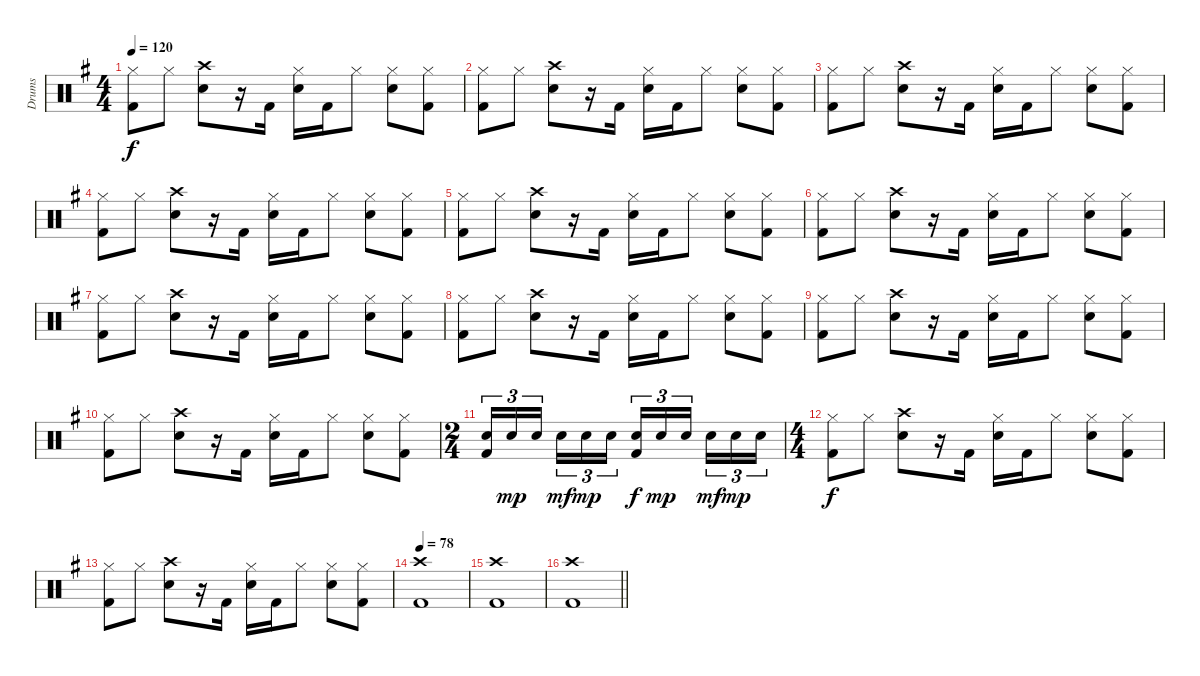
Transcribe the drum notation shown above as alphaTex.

\track ("Drums" "Drums") {instrument percussion}
\staff {score}
\articulation defaults
\ts (4 4)
\tempo 120
\clef neutral
\ks g
("Hi-Hat (closed)" "Kick (hit) 2").8{dy f} "Hi-Hat (closed)".8 ("Crash high (hit)" "Electric Snare (hit)").8 r.16 "Kick (hit) 2".16 ("Hi-Hat (closed)" "Electric Snare (hit)").16 "Kick (hit) 2".16 "Hi-Hat (closed)".8 ("Hi-Hat (closed)" "Electric Snare (hit)").8 ("Hi-Hat (closed)" "Kick (hit) 2").8 |
("Hi-Hat (closed)" "Kick (hit) 2").8 "Hi-Hat (closed)".8 ("Crash high (hit)" "Electric Snare (hit)").8 r.16 "Kick (hit) 2".16 ("Hi-Hat (closed)" "Electric Snare (hit)").16 "Kick (hit) 2".16 "Hi-Hat (closed)".8 ("Hi-Hat (closed)" "Electric Snare (hit)").8 ("Hi-Hat (closed)" "Kick (hit) 2").8 |
("Hi-Hat (closed)" "Kick (hit) 2").8 "Hi-Hat (closed)".8 ("Crash high (hit)" "Electric Snare (hit)").8 r.16 "Kick (hit) 2".16 ("Hi-Hat (closed)" "Electric Snare (hit)").16 "Kick (hit) 2".16 "Hi-Hat (closed)".8 ("Hi-Hat (closed)" "Electric Snare (hit)").8 ("Hi-Hat (closed)" "Kick (hit) 2").8 |
("Hi-Hat (closed)" "Kick (hit) 2").8 "Hi-Hat (closed)".8 ("Crash high (hit)" "Electric Snare (hit)").8 r.16 "Kick (hit) 2".16 ("Hi-Hat (closed)" "Electric Snare (hit)").16 "Kick (hit) 2".16 "Hi-Hat (closed)".8 ("Hi-Hat (closed)" "Electric Snare (hit)").8 ("Hi-Hat (closed)" "Kick (hit) 2").8 |
("Hi-Hat (closed)" "Kick (hit) 2").8 "Hi-Hat (closed)".8 ("Crash high (hit)" "Electric Snare (hit)").8 r.16 "Kick (hit) 2".16 ("Hi-Hat (closed)" "Electric Snare (hit)").16 "Kick (hit) 2".16 "Hi-Hat (closed)".8 ("Hi-Hat (closed)" "Electric Snare (hit)").8 ("Hi-Hat (closed)" "Kick (hit) 2").8 |
("Hi-Hat (closed)" "Kick (hit) 2").8 "Hi-Hat (closed)".8 ("Crash high (hit)" "Electric Snare (hit)").8 r.16 "Kick (hit) 2".16 ("Hi-Hat (closed)" "Electric Snare (hit)").16 "Kick (hit) 2".16 "Hi-Hat (closed)".8 ("Hi-Hat (closed)" "Electric Snare (hit)").8 ("Hi-Hat (closed)" "Kick (hit) 2").8 |
("Hi-Hat (closed)" "Kick (hit) 2").8 "Hi-Hat (closed)".8 ("Crash high (hit)" "Electric Snare (hit)").8 r.16 "Kick (hit) 2".16 ("Hi-Hat (closed)" "Electric Snare (hit)").16 "Kick (hit) 2".16 "Hi-Hat (closed)".8 ("Hi-Hat (closed)" "Electric Snare (hit)").8 ("Hi-Hat (closed)" "Kick (hit) 2").8 |
("Hi-Hat (closed)" "Kick (hit) 2").8 "Hi-Hat (closed)".8 ("Crash high (hit)" "Electric Snare (hit)").8 r.16 "Kick (hit) 2".16 ("Hi-Hat (closed)" "Electric Snare (hit)").16 "Kick (hit) 2".16 "Hi-Hat (closed)".8 ("Hi-Hat (closed)" "Electric Snare (hit)").8 ("Hi-Hat (closed)" "Kick (hit) 2").8 |
("Hi-Hat (closed)" "Kick (hit) 2").8 "Hi-Hat (closed)".8 ("Crash high (hit)" "Electric Snare (hit)").8 r.16 "Kick (hit) 2".16 ("Hi-Hat (closed)" "Electric Snare (hit)").16 "Kick (hit) 2".16 "Hi-Hat (closed)".8 ("Hi-Hat (closed)" "Electric Snare (hit)").8 ("Hi-Hat (closed)" "Kick (hit) 2").8 |
("Hi-Hat (closed)" "Kick (hit) 2").8 "Hi-Hat (closed)".8 ("Crash high (hit)" "Electric Snare (hit)").8 r.16 "Kick (hit) 2".16 ("Hi-Hat (closed)" "Electric Snare (hit)").16 "Kick (hit) 2".16 "Hi-Hat (closed)".8 ("Hi-Hat (closed)" "Electric Snare (hit)").8 ("Hi-Hat (closed)" "Kick (hit) 2").8 |
\ts (2 4)
("Electric Snare (hit)" "Kick (hit) 2").16{tu (3 2)} "Electric Snare (hit)".16{tu (3 2) dy mp} "Electric Snare (hit)".16{tu (3 2) beam splitsecondary} "Electric Snare (hit)".16{tu (3 2) dy mf} "Electric Snare (hit)".16{tu (3 2) dy mp} "Electric Snare (hit)".16{tu (3 2)} ("Electric Snare (hit)" "Kick (hit) 2").16{tu (3 2) dy f} "Electric Snare (hit)".16{tu (3 2) dy mp} "Electric Snare (hit)".16{tu (3 2) beam splitsecondary} "Electric Snare (hit)".16{tu (3 2) dy mf} "Electric Snare (hit)".16{tu (3 2) dy mp} "Electric Snare (hit)".16{tu (3 2)} |
\ts (4 4)
("Hi-Hat (closed)" "Kick (hit) 2").8{dy f} "Hi-Hat (closed)".8 ("Crash high (hit)" "Electric Snare (hit)").8 r.16 "Kick (hit) 2".16 ("Hi-Hat (closed)" "Electric Snare (hit)").16 "Kick (hit) 2".16 "Hi-Hat (closed)".8 ("Hi-Hat (closed)" "Electric Snare (hit)").8 ("Hi-Hat (closed)" "Kick (hit) 2").8 |
("Hi-Hat (closed)" "Kick (hit) 2").8 "Hi-Hat (closed)".8 ("Crash high (hit)" "Electric Snare (hit)").8 r.16 "Kick (hit) 2".16 ("Hi-Hat (closed)" "Electric Snare (hit)").16 "Kick (hit) 2".16 "Hi-Hat (closed)".8 ("Hi-Hat (closed)" "Electric Snare (hit)").8 ("Hi-Hat (closed)" "Kick (hit) 2").8 |
\tempo 78
("Crash high (hit)" "Kick (hit) 2").1 |
("Crash high (hit)" "Kick (hit) 2").1 |
\barLineRight lightlight
("Crash high (hit)" "Kick (hit) 2").1
